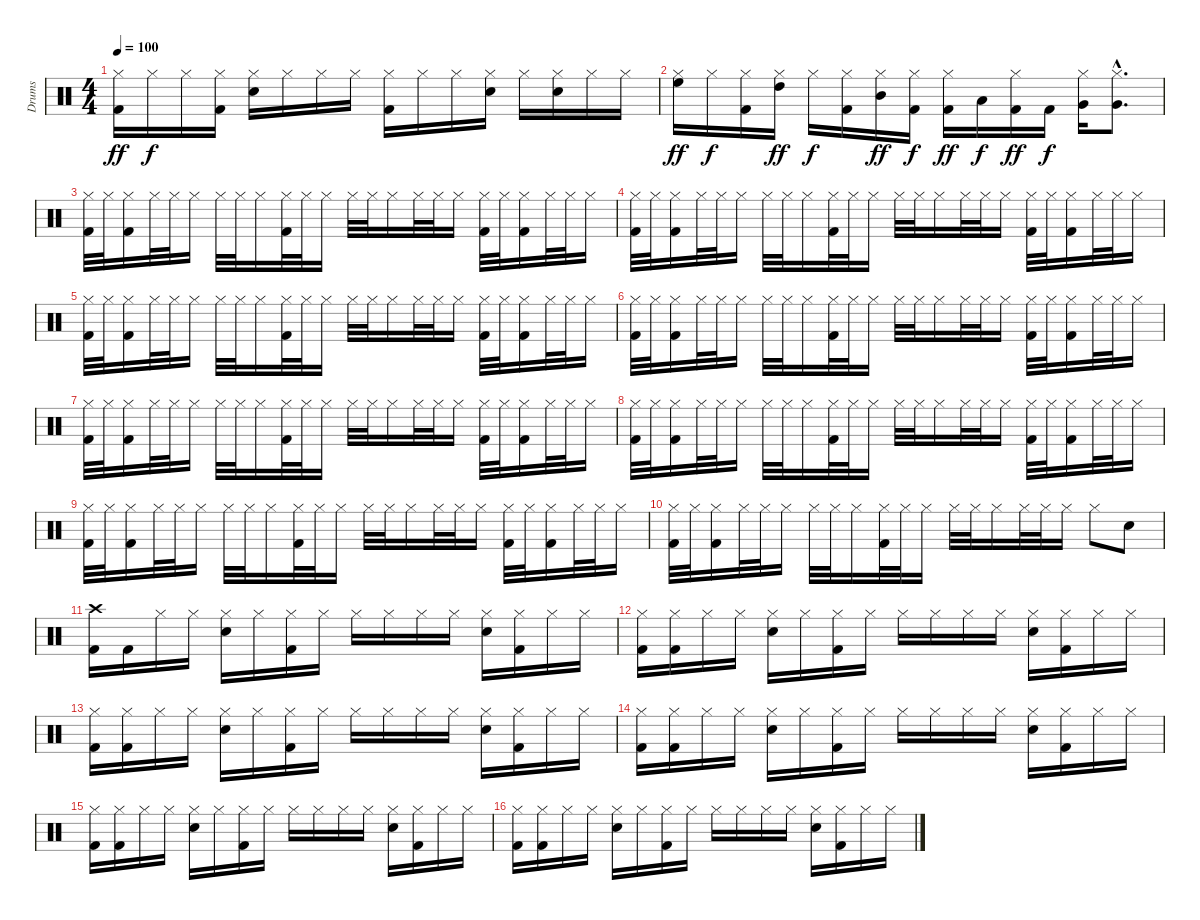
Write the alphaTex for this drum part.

\track ("Drums" "Drums") {instrument percussion}
\staff {score}
\articulation defaults
\ts (4 4)
\tempo 100
\clef neutral
\ks c
("Hi-Hat (closed)" "Kick (hit) 2").16{dy ff} "Hi-Hat (closed)".16{dy f} "Hi-Hat (closed)".16 ("Hi-Hat (closed)" "Kick (hit) 2").16 ("Hi-Hat (closed)" "Electric Snare (hit)").16 "Hi-Hat (closed)".16 "Hi-Hat (closed)".16 "Hi-Hat (closed)".16 ("Hi-Hat (closed)" "Kick (hit) 2").16 "Hi-Hat (closed)".16 "Hi-Hat (closed)".16 ("Hi-Hat (closed)" "Electric Snare (hit)").16 "Hi-Hat (closed)".16 ("Hi-Hat (closed)" "Electric Snare (hit)").16 "Hi-Hat (closed)".16 "Hi-Hat (closed)".16 |
("Hi-Hat (closed)" "High Floor Tom (hit)").16{dy ff} "Hi-Hat (closed)".16{dy f} ("Hi-Hat (closed)" "Kick (hit) 2").16 ("Hi-Hat (closed)" "High Tom (hit)").16{dy ff} "Hi-Hat (closed)".16{dy f} ("Hi-Hat (closed)" "Kick (hit) 2").16 ("Hi-Hat (closed)" "Mid Tom (hit)").16{dy ff} ("Hi-Hat (closed)" "Kick (hit) 2").16{dy f} ("Hi-Hat (closed)" "Kick (hit) 2").16{dy ff} "Low Tom (hit)".16{dy f} ("Hi-Hat (closed)" "Kick (hit) 2").16{dy ff} "Kick (hit) 2".16{dy f} ("Hi-Hat (closed)" "Very Low Tom (hit)").16 ("Hi-Hat (closed)"{hac} "Very Low Tom (hit)"{hac}).8{d} |
("Hi-Hat (closed)" "Kick (hit) 2").32 "Hi-Hat (closed)".32 ("Hi-Hat (closed)" "Kick (hit) 2").16 "Hi-Hat (closed)".32 "Hi-Hat (closed)".32 "Hi-Hat (closed)".16 "Hi-Hat (closed)".32 "Hi-Hat (closed)".32 "Hi-Hat (closed)".16 ("Hi-Hat (closed)" "Kick (hit) 2").32 "Hi-Hat (closed)".32 "Hi-Hat (closed)".16 "Hi-Hat (closed)".32 "Hi-Hat (closed)".32 "Hi-Hat (closed)".16 "Hi-Hat (closed)".32 "Hi-Hat (closed)".32 "Hi-Hat (closed)".16 ("Hi-Hat (closed)" "Kick (hit) 2").32 "Hi-Hat (closed)".32 ("Hi-Hat (closed)" "Kick (hit) 2").16 "Hi-Hat (closed)".32 "Hi-Hat (closed)".32 "Hi-Hat (closed)".16 |
("Hi-Hat (closed)" "Kick (hit) 2").32 "Hi-Hat (closed)".32 ("Hi-Hat (closed)" "Kick (hit) 2").16 "Hi-Hat (closed)".32 "Hi-Hat (closed)".32 "Hi-Hat (closed)".16 "Hi-Hat (closed)".32 "Hi-Hat (closed)".32 "Hi-Hat (closed)".16 ("Hi-Hat (closed)" "Kick (hit) 2").32 "Hi-Hat (closed)".32 "Hi-Hat (closed)".16 "Hi-Hat (closed)".32 "Hi-Hat (closed)".32 "Hi-Hat (closed)".16 "Hi-Hat (closed)".32 "Hi-Hat (closed)".32 "Hi-Hat (closed)".16 ("Hi-Hat (closed)" "Kick (hit) 2").32 "Hi-Hat (closed)".32 ("Hi-Hat (closed)" "Kick (hit) 2").16 "Hi-Hat (closed)".32 "Hi-Hat (closed)".32 "Hi-Hat (closed)".16 |
("Hi-Hat (closed)" "Kick (hit) 2").32 "Hi-Hat (closed)".32 ("Hi-Hat (closed)" "Kick (hit) 2").16 "Hi-Hat (closed)".32 "Hi-Hat (closed)".32 "Hi-Hat (closed)".16 "Hi-Hat (closed)".32 "Hi-Hat (closed)".32 "Hi-Hat (closed)".16 ("Hi-Hat (closed)" "Kick (hit) 2").32 "Hi-Hat (closed)".32 "Hi-Hat (closed)".16 "Hi-Hat (closed)".32 "Hi-Hat (closed)".32 "Hi-Hat (closed)".16 "Hi-Hat (closed)".32 "Hi-Hat (closed)".32 "Hi-Hat (closed)".16 ("Hi-Hat (closed)" "Kick (hit) 2").32 "Hi-Hat (closed)".32 ("Hi-Hat (closed)" "Kick (hit) 2").16 "Hi-Hat (closed)".32 "Hi-Hat (closed)".32 "Hi-Hat (closed)".16 |
("Hi-Hat (closed)" "Kick (hit) 2").32 "Hi-Hat (closed)".32 ("Hi-Hat (closed)" "Kick (hit) 2").16 "Hi-Hat (closed)".32 "Hi-Hat (closed)".32 "Hi-Hat (closed)".16 "Hi-Hat (closed)".32 "Hi-Hat (closed)".32 "Hi-Hat (closed)".16 ("Hi-Hat (closed)" "Kick (hit) 2").32 "Hi-Hat (closed)".32 "Hi-Hat (closed)".16 "Hi-Hat (closed)".32 "Hi-Hat (closed)".32 "Hi-Hat (closed)".16 "Hi-Hat (closed)".32 "Hi-Hat (closed)".32 "Hi-Hat (closed)".16 ("Hi-Hat (closed)" "Kick (hit) 2").32 "Hi-Hat (closed)".32 ("Hi-Hat (closed)" "Kick (hit) 2").16 "Hi-Hat (closed)".32 "Hi-Hat (closed)".32 "Hi-Hat (closed)".16 |
("Hi-Hat (closed)" "Kick (hit) 2").32 "Hi-Hat (closed)".32 ("Hi-Hat (closed)" "Kick (hit) 2").16 "Hi-Hat (closed)".32 "Hi-Hat (closed)".32 "Hi-Hat (closed)".16 "Hi-Hat (closed)".32 "Hi-Hat (closed)".32 "Hi-Hat (closed)".16 ("Hi-Hat (closed)" "Kick (hit) 2").32 "Hi-Hat (closed)".32 "Hi-Hat (closed)".16 "Hi-Hat (closed)".32 "Hi-Hat (closed)".32 "Hi-Hat (closed)".16 "Hi-Hat (closed)".32 "Hi-Hat (closed)".32 "Hi-Hat (closed)".16 ("Hi-Hat (closed)" "Kick (hit) 2").32 "Hi-Hat (closed)".32 ("Hi-Hat (closed)" "Kick (hit) 2").16 "Hi-Hat (closed)".32 "Hi-Hat (closed)".32 "Hi-Hat (closed)".16 |
("Hi-Hat (closed)" "Kick (hit) 2").32 "Hi-Hat (closed)".32 ("Hi-Hat (closed)" "Kick (hit) 2").16 "Hi-Hat (closed)".32 "Hi-Hat (closed)".32 "Hi-Hat (closed)".16 "Hi-Hat (closed)".32 "Hi-Hat (closed)".32 "Hi-Hat (closed)".16 ("Hi-Hat (closed)" "Kick (hit) 2").32 "Hi-Hat (closed)".32 "Hi-Hat (closed)".16 "Hi-Hat (closed)".32 "Hi-Hat (closed)".32 "Hi-Hat (closed)".16 "Hi-Hat (closed)".32 "Hi-Hat (closed)".32 "Hi-Hat (closed)".16 ("Hi-Hat (closed)" "Kick (hit) 2").32 "Hi-Hat (closed)".32 ("Hi-Hat (closed)" "Kick (hit) 2").16 "Hi-Hat (closed)".32 "Hi-Hat (closed)".32 "Hi-Hat (closed)".16 |
("Hi-Hat (closed)" "Kick (hit) 2").32 "Hi-Hat (closed)".32 ("Hi-Hat (closed)" "Kick (hit) 2").16 "Hi-Hat (closed)".32 "Hi-Hat (closed)".32 "Hi-Hat (closed)".16 "Hi-Hat (closed)".32 "Hi-Hat (closed)".32 "Hi-Hat (closed)".16 ("Hi-Hat (closed)" "Kick (hit) 2").32 "Hi-Hat (closed)".32 "Hi-Hat (closed)".16 "Hi-Hat (closed)".32 "Hi-Hat (closed)".32 "Hi-Hat (closed)".16 "Hi-Hat (closed)".32 "Hi-Hat (closed)".32 "Hi-Hat (closed)".16 ("Hi-Hat (closed)" "Kick (hit) 2").32 "Hi-Hat (closed)".32 ("Hi-Hat (closed)" "Kick (hit) 2").16 "Hi-Hat (closed)".32 "Hi-Hat (closed)".32 "Hi-Hat (closed)".16 |
("Hi-Hat (closed)" "Kick (hit) 2").32 "Hi-Hat (closed)".32 ("Hi-Hat (closed)" "Kick (hit) 2").16 "Hi-Hat (closed)".32 "Hi-Hat (closed)".32 "Hi-Hat (closed)".16 "Hi-Hat (closed)".32 "Hi-Hat (closed)".32 "Hi-Hat (closed)".16 ("Hi-Hat (closed)" "Kick (hit) 2").32 "Hi-Hat (closed)".32 "Hi-Hat (closed)".16 "Hi-Hat (closed)".32 "Hi-Hat (closed)".32 "Hi-Hat (closed)".16 "Hi-Hat (closed)".32 "Hi-Hat (closed)".32 "Hi-Hat (closed)".16 "Hi-Hat (closed)".8 "Electric Snare (hit)".8 |
("Crash high (hit)" "Kick (hit) 2").16 "Kick (hit) 2".16 "Hi-Hat (closed)".16 "Hi-Hat (closed)".16 ("Hi-Hat (closed)" "Electric Snare (hit)").16 "Hi-Hat (closed)".16 ("Hi-Hat (closed)" "Kick (hit) 2").16 "Hi-Hat (closed)".16 "Hi-Hat (closed)".16 "Hi-Hat (closed)".16 "Hi-Hat (closed)".16 "Hi-Hat (closed)".16 ("Hi-Hat (closed)" "Electric Snare (hit)").16 ("Hi-Hat (closed)" "Kick (hit) 2").16 "Hi-Hat (closed)".16 "Hi-Hat (closed)".16 |
("Hi-Hat (closed)" "Kick (hit) 2").16 ("Hi-Hat (closed)" "Kick (hit) 2").16 "Hi-Hat (closed)".16 "Hi-Hat (closed)".16 ("Hi-Hat (closed)" "Electric Snare (hit)").16 "Hi-Hat (closed)".16 ("Hi-Hat (closed)" "Kick (hit) 2").16 "Hi-Hat (closed)".16 "Hi-Hat (closed)".16 "Hi-Hat (closed)".16 "Hi-Hat (closed)".16 "Hi-Hat (closed)".16 ("Hi-Hat (closed)" "Electric Snare (hit)").16 ("Hi-Hat (closed)" "Kick (hit) 2").16 "Hi-Hat (closed)".16 "Hi-Hat (closed)".16 |
("Hi-Hat (closed)" "Kick (hit) 2").16 ("Hi-Hat (closed)" "Kick (hit) 2").16 "Hi-Hat (closed)".16 "Hi-Hat (closed)".16 ("Hi-Hat (closed)" "Electric Snare (hit)").16 "Hi-Hat (closed)".16 ("Hi-Hat (closed)" "Kick (hit) 2").16 "Hi-Hat (closed)".16 "Hi-Hat (closed)".16 "Hi-Hat (closed)".16 "Hi-Hat (closed)".16 "Hi-Hat (closed)".16 ("Hi-Hat (closed)" "Electric Snare (hit)").16 ("Hi-Hat (closed)" "Kick (hit) 2").16 "Hi-Hat (closed)".16 "Hi-Hat (closed)".16 |
("Hi-Hat (closed)" "Kick (hit) 2").16 ("Hi-Hat (closed)" "Kick (hit) 2").16 "Hi-Hat (closed)".16 "Hi-Hat (closed)".16 ("Hi-Hat (closed)" "Electric Snare (hit)").16 "Hi-Hat (closed)".16 ("Hi-Hat (closed)" "Kick (hit) 2").16 "Hi-Hat (closed)".16 "Hi-Hat (closed)".16 "Hi-Hat (closed)".16 "Hi-Hat (closed)".16 "Hi-Hat (closed)".16 ("Hi-Hat (closed)" "Electric Snare (hit)").16 ("Hi-Hat (closed)" "Kick (hit) 2").16 "Hi-Hat (closed)".16 "Hi-Hat (closed)".16 |
("Hi-Hat (closed)" "Kick (hit) 2").16 ("Hi-Hat (closed)" "Kick (hit) 2").16 "Hi-Hat (closed)".16 "Hi-Hat (closed)".16 ("Hi-Hat (closed)" "Electric Snare (hit)").16 "Hi-Hat (closed)".16 ("Hi-Hat (closed)" "Kick (hit) 2").16 "Hi-Hat (closed)".16 "Hi-Hat (closed)".16 "Hi-Hat (closed)".16 "Hi-Hat (closed)".16 "Hi-Hat (closed)".16 ("Hi-Hat (closed)" "Electric Snare (hit)").16 ("Hi-Hat (closed)" "Kick (hit) 2").16 "Hi-Hat (closed)".16 "Hi-Hat (closed)".16 |
("Hi-Hat (closed)" "Kick (hit) 2").16 ("Hi-Hat (closed)" "Kick (hit) 2").16 "Hi-Hat (closed)".16 "Hi-Hat (closed)".16 ("Hi-Hat (closed)" "Electric Snare (hit)").16 "Hi-Hat (closed)".16 ("Hi-Hat (closed)" "Kick (hit) 2").16 "Hi-Hat (closed)".16 "Hi-Hat (closed)".16 "Hi-Hat (closed)".16 "Hi-Hat (closed)".16 "Hi-Hat (closed)".16 ("Hi-Hat (closed)" "Electric Snare (hit)").16 ("Hi-Hat (closed)" "Kick (hit) 2").16 "Hi-Hat (closed)".16 "Hi-Hat (closed)".16
